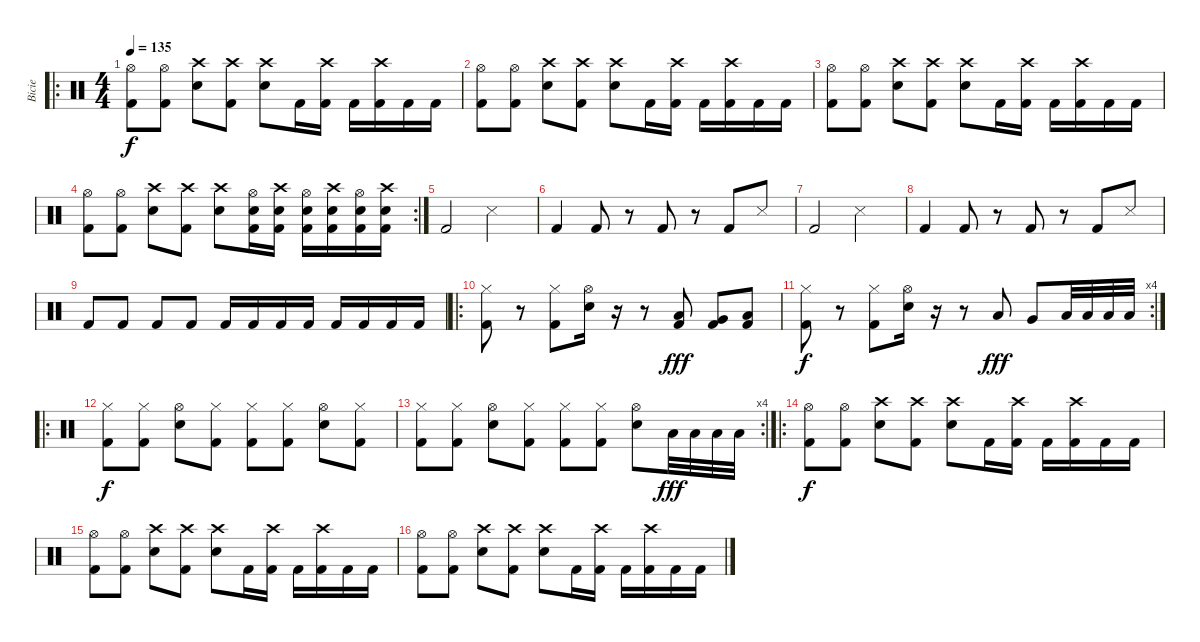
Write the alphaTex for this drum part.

\track ("Bicie" "Bicie") {instrument percussion}
\staff {score}
\articulation defaults
\ro
\ts (4 4)
\tempo 135
\clef neutral
\ks c
("Hi-Hat (open)" "Kick (hit) 2").8{dy f} ("Hi-Hat (open)" "Kick (hit) 2").8 ("Crash high (hit)" "Electric Snare (hit)").8 ("Crash high (hit)" "Kick (hit) 2").8 ("Crash high (hit)" "Electric Snare (hit)").8 "Kick (hit) 2".16 ("Crash high (hit)" "Kick (hit) 2").16 "Kick (hit) 2".16 ("Crash high (hit)" "Kick (hit) 2").16 "Kick (hit) 2".16 "Kick (hit) 2".16 |
("Hi-Hat (open)" "Kick (hit) 2").8 ("Hi-Hat (open)" "Kick (hit) 2").8 ("Crash high (hit)" "Electric Snare (hit)").8 ("Crash high (hit)" "Kick (hit) 2").8 ("Crash high (hit)" "Electric Snare (hit)").8 "Kick (hit) 2".16 ("Crash high (hit)" "Kick (hit) 2").16 "Kick (hit) 2".16 ("Crash high (hit)" "Kick (hit) 2").16 "Kick (hit) 2".16 "Kick (hit) 2".16 |
("Hi-Hat (open)" "Kick (hit) 2").8 ("Hi-Hat (open)" "Kick (hit) 2").8 ("Crash high (hit)" "Electric Snare (hit)").8 ("Crash high (hit)" "Kick (hit) 2").8 ("Crash high (hit)" "Electric Snare (hit)").8 "Kick (hit) 2".16 ("Crash high (hit)" "Kick (hit) 2").16 "Kick (hit) 2".16 ("Crash high (hit)" "Kick (hit) 2").16 "Kick (hit) 2".16 "Kick (hit) 2".16 |
\rc 2
("Hi-Hat (open)" "Kick (hit) 2").8 ("Hi-Hat (open)" "Kick (hit) 2").8 ("Crash high (hit)" "Electric Snare (hit)").8 ("Crash high (hit)" "Kick (hit) 2").8 ("Crash high (hit)" "Electric Snare (hit)").8 ("Electric Snare (hit)" "Hi-Hat (open)" "Kick (hit) 2").16 ("Electric Snare (hit)" "Crash high (hit)" "Kick (hit) 2").16 ("Electric Snare (hit)" "Hi-Hat (open)" "Kick (hit) 2").16 ("Electric Snare (hit)" "Crash high (hit)" "Kick (hit) 2").16 ("Electric Snare (hit)" "Hi-Hat (open)" "Kick (hit) 2").16 ("Electric Snare (hit)" "Crash high (hit)" "Kick (hit) 2").16 |
"Kick (hit) 2".2 "Snare (side stick) 3".2 |
"Kick (hit) 2".4 "Kick (hit) 2".8 r.8 "Kick (hit) 2".8 r.8 "Kick (hit) 2".8 "Snare (side stick) 3".8 |
"Kick (hit) 2".2 "Snare (side stick) 3".2 |
"Kick (hit) 2".4 "Kick (hit) 2".8 r.8 "Kick (hit) 2".8 r.8 "Kick (hit) 2".8 "Snare (side stick) 3".8 |
"Kick (hit) 2".8 "Kick (hit) 2".8 "Kick (hit) 2".8 "Kick (hit) 2".8 "Kick (hit) 2".16 "Kick (hit) 2".16 "Kick (hit) 2".16 "Kick (hit) 2".16 "Kick (hit) 2".16 "Kick (hit) 2".16 "Kick (hit) 2".16 "Kick (hit) 2".16 |
\ro
("Hi-Hat (closed)" "Kick (hit) 2").8 r.8 ("Hi-Hat (closed)" "Kick (hit) 2").8 ("Hi-Hat (open)" "Electric Snare (hit)").16 r.16 r.8 ("Low Tom (hit)" "Kick (hit) 2").8{dy fff} ("Very Low Tom (hit)" "Kick (hit) 2").8 ("Low Floor Tom (hit)" "Kick (hit) 2").8 |
\rc 4
("Hi-Hat (closed)" "Kick (hit) 2").8{dy f} r.8 ("Hi-Hat (closed)" "Kick (hit) 2").8 ("Hi-Hat (open)" "Electric Snare (hit)").16 r.16 r.8 "Low Tom (hit)".8{dy fff} "Very Low Tom (hit)".8 "Low Floor Tom (hit)".32 "Low Floor Tom (hit)".32 "Low Floor Tom (hit)".32 "Low Floor Tom (hit)".32 |
\ro
("Hi-Hat (closed)" "Kick (hit) 2").8{dy f} ("Hi-Hat (closed)" "Kick (hit) 2").8 ("Hi-Hat (open)" "Electric Snare (hit)").8 ("Hi-Hat (closed)" "Kick (hit) 2").8 ("Hi-Hat (closed)" "Kick (hit) 2").8 ("Hi-Hat (closed)" "Kick (hit) 2").8 ("Hi-Hat (open)" "Electric Snare (hit)").8 ("Hi-Hat (closed)" "Kick (hit) 2").8 |
\rc 4
("Hi-Hat (closed)" "Kick (hit) 2").8 ("Hi-Hat (closed)" "Kick (hit) 2").8 ("Hi-Hat (open)" "Electric Snare (hit)").8 ("Hi-Hat (closed)" "Kick (hit) 2").8 ("Hi-Hat (closed)" "Kick (hit) 2").8 ("Hi-Hat (closed)" "Kick (hit) 2").8 ("Hi-Hat (open)" "Electric Snare (hit)").8 "Low Floor Tom (hit)".32{dy fff} "Low Floor Tom (hit)".32 "Low Floor Tom (hit)".32 "Low Floor Tom (hit)".32 |
\ro
("Hi-Hat (open)" "Kick (hit) 2").8{dy f} ("Hi-Hat (open)" "Kick (hit) 2").8 ("Crash high (hit)" "Electric Snare (hit)").8 ("Crash high (hit)" "Kick (hit) 2").8 ("Crash high (hit)" "Electric Snare (hit)").8 "Kick (hit) 2".16 ("Crash high (hit)" "Kick (hit) 2").16 "Kick (hit) 2".16 ("Crash high (hit)" "Kick (hit) 2").16 "Kick (hit) 2".16 "Kick (hit) 2".16 |
("Hi-Hat (open)" "Kick (hit) 2").8 ("Hi-Hat (open)" "Kick (hit) 2").8 ("Crash high (hit)" "Electric Snare (hit)").8 ("Crash high (hit)" "Kick (hit) 2").8 ("Crash high (hit)" "Electric Snare (hit)").8 "Kick (hit) 2".16 ("Crash high (hit)" "Kick (hit) 2").16 "Kick (hit) 2".16 ("Crash high (hit)" "Kick (hit) 2").16 "Kick (hit) 2".16 "Kick (hit) 2".16 |
("Hi-Hat (open)" "Kick (hit) 2").8 ("Hi-Hat (open)" "Kick (hit) 2").8 ("Crash high (hit)" "Electric Snare (hit)").8 ("Crash high (hit)" "Kick (hit) 2").8 ("Crash high (hit)" "Electric Snare (hit)").8 "Kick (hit) 2".16 ("Crash high (hit)" "Kick (hit) 2").16 "Kick (hit) 2".16 ("Crash high (hit)" "Kick (hit) 2").16 "Kick (hit) 2".16 "Kick (hit) 2".16
